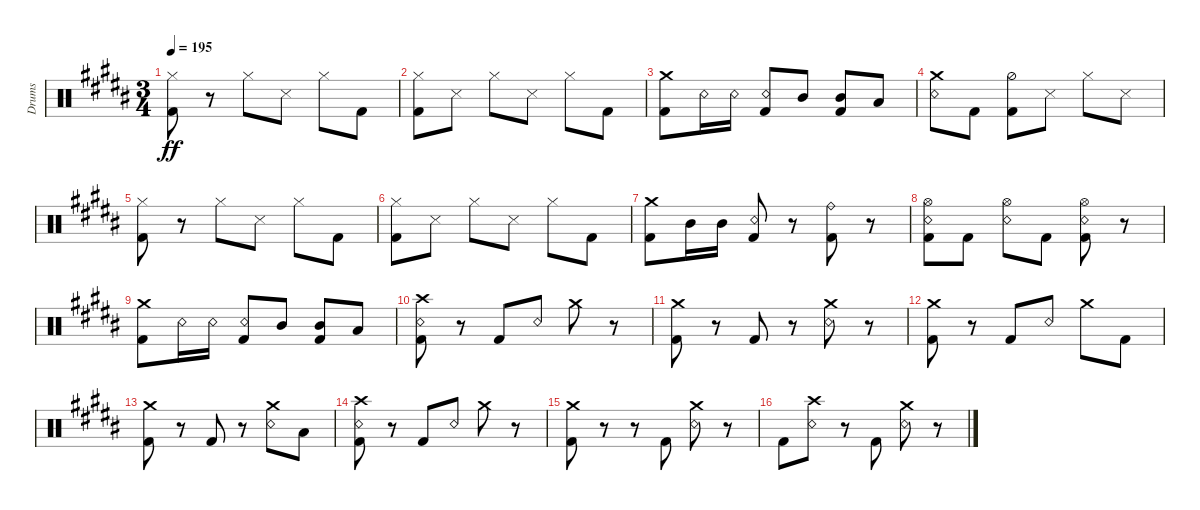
\bracketExtendMode groupsimilarinstruments
\otherSystemsTrackNameOrientation horizontal
\track ("Drumkit" "Drums") {instrument percussion}
\staff {score}
\articulation defaults
\ts (3 4)
\tempo 195
\clef neutral
\ks b
("Hi-Hat (closed)"{acc bb} "Kick (hit) 2"{acc bb}).8{dy ff beam Down} r.8{beam Down} "Hi-Hat (closed)"{acc bb}.8{beam Down} "Snare (side stick) 3"{acc bb}.8{beam Down} "Hi-Hat (closed)"{acc bb}.8{beam Down} "Kick (hit) 2"{acc bb}.8{beam Down} |
("Hi-Hat (closed)"{acc bb} "Kick (hit) 2"{acc bb}).8{beam Down} "Snare (side stick) 3"{acc bb}.8{beam Down} "Hi-Hat (closed)"{acc bb}.8{beam Down} "Snare (side stick) 3"{acc bb}.8{beam Down} "Hi-Hat (closed)"{acc bb}.8{beam Down} "Kick (hit) 2"{acc bb}.8{beam Down} |
("Kick (hit) 2"{acc bb} "Crash medium (hit)"{acc bb}).8{beam Down} "Snare (rim shot)"{acc bb}.16{beam Down} "Snare (rim shot)"{acc bb}.16{beam Down} ("Snare (rim shot)"{acc bb} "Kick (hit) 2"{acc bb}).8{beam Up} "Mid Tom (hit)"{acc bb}.8{beam Up} ("Kick (hit) 2"{acc bb} "Mid Tom (hit)"{acc bb}).8{beam Up} "Low Tom (hit)"{acc bb}.8{beam Up} |
("Snare (rim shot)"{acc bb} "Crash medium (hit)"{acc bb}).8{beam Down} "Kick (hit) 2"{acc bb}.8{beam Down} ("Kick (hit) 2"{acc bb} "Hi-Hat (half)"{acc bb}).8{beam Down} "Snare (side stick) 3"{acc bb}.8{beam Down} "Hi-Hat (closed)"{acc bb}.8{beam Down} "Snare (side stick) 3"{acc bb}.8{beam Down} |
("Hi-Hat (closed)"{acc bb} "Kick (hit) 2"{acc bb}).8{beam Down} r.8{beam Down} "Hi-Hat (closed)"{acc bb}.8{beam Down} "Snare (side stick) 3"{acc bb}.8{beam Down} "Hi-Hat (closed)"{acc bb}.8{beam Down} "Kick (hit) 2"{acc bb}.8{beam Down} |
("Hi-Hat (closed)"{acc bb} "Kick (hit) 2"{acc bb}).8{beam Down} "Snare (side stick) 3"{acc bb}.8{beam Down} "Hi-Hat (closed)"{acc bb}.8{beam Down} "Snare (side stick) 3"{acc bb}.8{beam Down} "Hi-Hat (closed)"{acc bb}.8{beam Down} "Kick (hit) 2"{acc bb}.8{beam Down} |
("Kick (hit) 2"{acc bb} "Crash medium (hit)"{acc bb}).8{beam Down} "Mid Tom (hit)"{acc bb}.16{beam Down} "Mid Tom (hit)"{acc bb}.16{beam Down} ("Snare (rim shot)"{acc bb} "Kick (hit) 2"{acc bb}).8{beam Up} r.8{beam Up} ("Kick (hit) 2"{acc bb} "Ride (bell)"{acc bb}).8{beam Down} r.8{beam Down} |
("Snare (rim shot)"{acc bb} "Hi-Hat (open)"{acc bb} "Kick (hit) 2"{acc bb}).8{beam Down} "Kick (hit) 2"{acc bb}.8{beam Down} ("Snare (rim shot)"{acc bb} "Hi-Hat (open)"{acc bb}).8{beam Down} "Kick (hit) 2"{acc bb}.8{beam Down} ("Snare (rim shot)"{acc bb} "Hi-Hat (open)"{acc bb} "Kick (hit) 2"{acc bb}).8{beam Down} r.8{beam Down} |
("Kick (hit) 2"{acc bb} "Crash medium (hit)"{acc bb}).8{beam Down} "Snare (rim shot)"{acc bb}.16{beam Down} "Snare (rim shot)"{acc bb}.16{beam Down} ("Snare (rim shot)"{acc bb} "Kick (hit) 2"{acc bb}).8{beam Up} "Mid Tom (hit)"{acc bb}.8{beam Up} ("Kick (hit) 2"{acc bb} "Mid Tom (hit)"{acc bb}).8{beam Up} "Low Tom (hit)"{acc bb}.8{beam Up} |
("Crash high (hit)"{acc bb} "Snare (rim shot)"{acc bb} "Kick (hit) 2"{acc bb}).8{beam Down} r.8{beam Down} "Kick (hit) 2"{acc bb}.8{beam Up} "Snare (rim shot)"{acc bb}.8{beam Up} "Crash medium (hit)"{acc bb}.8{beam Down} r.8{beam Down} |
("Crash medium (hit)"{acc bb} "Kick (hit) 2"{acc bb}).8{beam Down} r.8{beam Down} "Kick (hit) 2"{acc bb}.8{beam Up} r.8{beam Up} ("Crash medium (hit)"{acc bb} "Snare (rim shot)"{acc bb}).8{beam Down} r.8{beam Down} |
("Crash medium (hit)"{acc bb} "Kick (hit) 2"{acc bb}).8{beam Down} r.8{beam Down} "Kick (hit) 2"{acc bb}.8{beam Up} "Snare (rim shot)"{acc bb}.8{beam Up} "Crash medium (hit)"{acc bb}.8{beam Down} "Kick (hit) 2"{acc bb}.8{beam Down} |
("Crash medium (hit)"{acc bb} "Kick (hit) 2"{acc bb}).8{beam Down} r.8{beam Down} "Kick (hit) 2"{acc bb}.8{beam Up} r.8{beam Up} ("Crash medium (hit)"{acc bb} "Snare (rim shot)"{acc bb}).8{beam Down} "Low Tom (hit)"{acc bb}.8{beam Down} |
("Crash high (hit)"{acc bb} "Snare (rim shot)"{acc bb} "Kick (hit) 2"{acc bb}).8{beam Down} r.8{beam Down} "Kick (hit) 2"{acc bb}.8{beam Up} "Snare (rim shot)"{acc bb}.8{beam Up} "Crash medium (hit)"{acc bb}.8{beam Down} r.8{beam Down} |
("Crash medium (hit)"{acc bb} "Kick (hit) 2"{acc bb}).8{beam Down} r.8{beam Down} r.8{beam Down} "Kick (hit) 2"{acc bb}.8{beam Up} ("Snare (rim shot)"{acc bb} "Crash medium (hit)"{acc bb}).8{beam Down} r.8{beam Down} |
"Kick (hit) 2"{acc bb}.8{beam Down} ("Snare (rim shot)"{acc bb} "Crash high (hit)"{acc bb}).8{beam Down} r.8{beam Down} "Kick (hit) 2"{acc bb}.8{beam Up} ("Snare (rim shot)"{acc bb} "Crash medium (hit)"{acc bb}).8{beam Down} r.8{beam Down}
